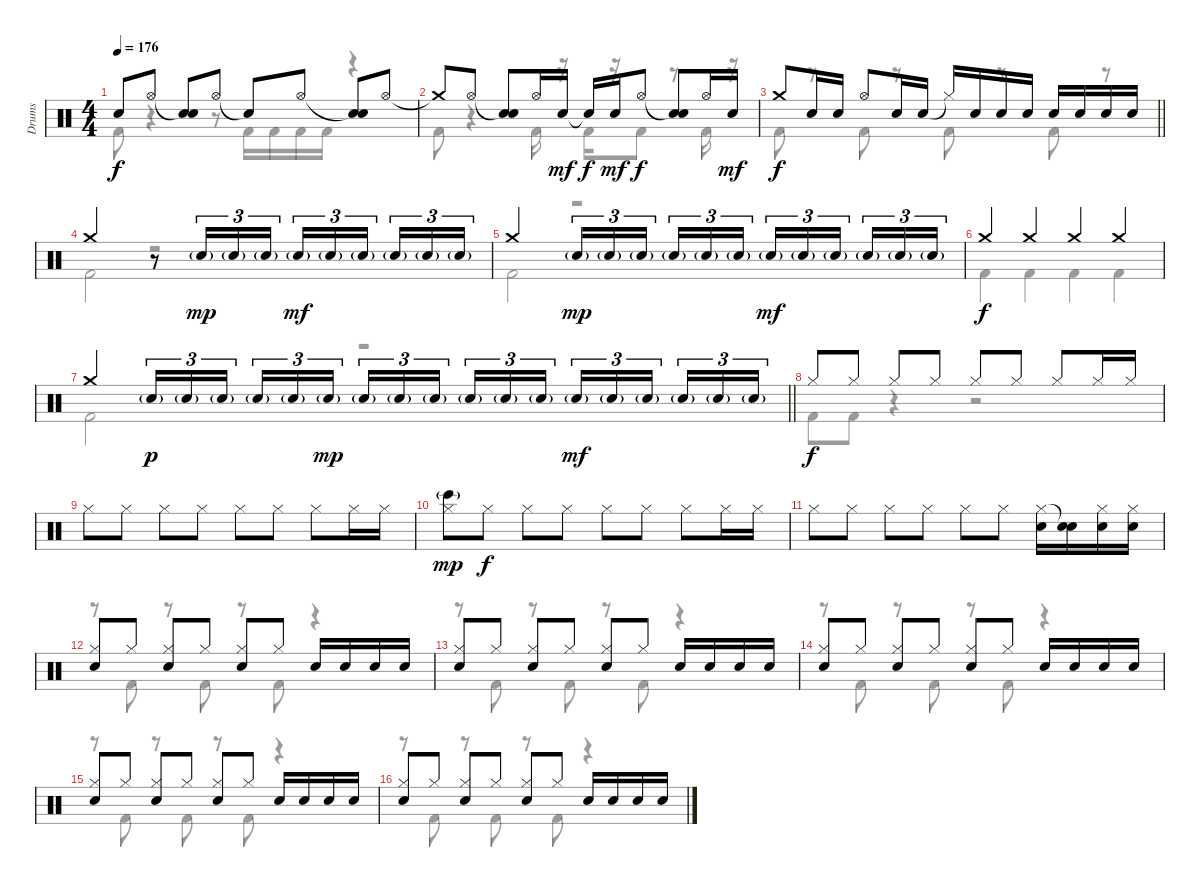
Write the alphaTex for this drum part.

\track ("Drums" "Drums") {instrument percussion}
\staff {score}
\articulation defaults
\voice
\ts (4 4)
\tempo 176
\clef neutral
\ks c "Snare (hit)"{t}.8{dy f} "Hi-Hat (open)".8
("Snare (hit)"{t} "Snare (hit) 2").8 "Hi-Hat (open)".8 "Snare (hit)"{t}.8 "Hi-Hat (open)".8 ("Snare (hit)"{t} "Snare (hit) 2").8 "Hi-Hat (open)".8 |
"Crash medium (hit)"{t}.8 "Hi-Hat (open)".8 ("Snare (hit)"{t} "Snare (hit) 2").8 "Hi-Hat (open)".16 "Snare (hit) 2".16{dy mf} "Snare (hit)"{t}.16{dy f} "Snare (hit) 2".16{dy mf} "Hi-Hat (open)".8{dy f} ("Snare (hit)"{t} "Snare (hit) 2").8 "Hi-Hat (open)".16 "Snare (hit) 2".16{dy mf} |
\barLineRight lightlight "Crash medium (hit)".8{dy f} "Snare (hit) 2".16 "Snare (hit) 2".16 "Hi-Hat (open)".8 "Snare (hit) 2".16 "Snare (hit) 2".16 "Hi-Hat (closed)"{t}.16 "Snare (hit) 2".16 "Snare (hit) 2".16 "Snare (hit) 2".16 "Snare (hit) 2".16 "Snare (hit) 2".16 "Snare (hit) 2".16 "Snare (hit) 2".16
|
"Crash medium (hit)".2 r.8 "Snare (hit) 2"{g}.16{tu (3 2) dy mp} "Snare (hit) 2"{g}.16{tu (3 2)} "Snare (hit) 2"{g}.16{tu (3 2)} "Snare (hit) 2"{g}.16{tu (3 2) dy mf} "Snare (hit) 2"{g}.16{tu (3 2)} "Snare (hit) 2"{g}.16{tu (3 2) beam splitsecondary} "Snare (hit) 2"{g}.16{tu (3 2)} "Snare (hit) 2"{g}.16{tu (3 2)} "Snare (hit) 2"{g}.16{tu (3 2)} |
"Crash medium (hit)".2 "Snare (hit) 2"{g}.16{tu (3 2) dy mp} "Snare (hit) 2"{g}.16{tu (3 2)} "Snare (hit) 2"{g}.16{tu (3 2) beam splitsecondary} "Snare (hit) 2"{g}.16{tu (3 2)} "Snare (hit) 2"{g}.16{tu (3 2)} "Snare (hit) 2"{g}.16{tu (3 2)} "Snare (hit) 2"{g}.16{tu (3 2) dy mf} "Snare (hit) 2"{g}.16{tu (3 2)} "Snare (hit) 2"{g}.16{tu (3 2) beam splitsecondary} "Snare (hit) 2"{g}.16{tu (3 2)} "Snare (hit) 2"{g}.16{tu (3 2)} "Snare (hit) 2"{g}.16{tu (3 2)} |
"Crash medium (hit)".4{dy f} "Crash medium (hit)".4 "Crash medium (hit)".4 "Crash medium (hit)".4 |
\barLineRight lightlight "Crash medium (hit)".4 "Snare (hit) 2"{g}.16{tu (3 2) dy p} "Snare (hit) 2"{g}.16{tu (3 2)} "Snare (hit) 2"{g}.16{tu (3 2) beam splitsecondary} "Snare (hit) 2"{g}.16{tu (3 2)} "Snare (hit) 2"{g}.16{tu (3 2)} "Snare (hit) 2"{g}.16{tu (3 2) dy mp} "Snare (hit) 2"{g}.16{tu (3 2)} "Snare (hit) 2"{g}.16{tu (3 2)} "Snare (hit) 2"{g}.16{tu (3 2) beam splitsecondary} "Snare (hit) 2"{g}.16{tu (3 2)} "Snare (hit) 2"{g}.16{tu (3 2)} "Snare (hit) 2"{g}.16{tu (3 2)} "Snare (hit) 2"{g}.16{tu (3 2) dy mf} "Snare (hit) 2"{g}.16{tu (3 2)} "Snare (hit) 2"{g}.16{tu (3 2) beam splitsecondary} "Snare (hit) 2"{g}.16{tu (3 2)} "Snare (hit) 2"{g}.16{tu (3 2)} "Snare (hit) 2"{g}.16{tu (3 2)}
|
"Hi-Hat (closed)".8{dy f} "Hi-Hat (closed)".8 "Hi-Hat (closed)".8 "Hi-Hat (closed)".8 "Hi-Hat (closed)".8 "Hi-Hat (closed)".8 "Hi-Hat (closed)".8 "Hi-Hat (closed)".16 "Hi-Hat (closed)".16 |
"Hi-Hat (closed)".8 "Hi-Hat (closed)".8 "Hi-Hat (closed)".8 "Hi-Hat (closed)".8 "Hi-Hat (closed)".8 "Hi-Hat (closed)".8 "Hi-Hat (closed)".8 "Hi-Hat (closed)".16 "Hi-Hat (closed)".16 |
("Hi-Hat (closed)" "Bongo High (hit)"{g}).8{dy mp} "Hi-Hat (closed)".8{dy f} "Hi-Hat (closed)".8 "Hi-Hat (closed)".8 "Hi-Hat (closed)".8 "Hi-Hat (closed)".8 "Hi-Hat (closed)".8 "Hi-Hat (closed)".16 "Hi-Hat (closed)".16 |
"Hi-Hat (closed)".8 "Hi-Hat (closed)".8 "Hi-Hat (closed)".8 "Hi-Hat (closed)".8 "Hi-Hat (closed)".8 "Hi-Hat (closed)".8 ("Hi-Hat (closed)" "Snare (hit) 2").16 ("Snare (hit)"{t} "Snare (hit) 2").16 ("Hi-Hat (closed)" "Snare (hit) 2").16 ("Hi-Hat (closed)" "Snare (hit) 2").16 |
("Hi-Hat (closed)" "Snare (hit) 2").8 "Hi-Hat (closed)".8 ("Hi-Hat (closed)" "Snare (hit) 2").8 "Hi-Hat (closed)".8 ("Hi-Hat (closed)" "Snare (hit) 2").8 "Hi-Hat (closed)".8 "Snare (hit) 2".16 "Snare (hit) 2".16 "Snare (hit) 2".16 "Snare (hit) 2".16 |
("Hi-Hat (closed)" "Snare (hit) 2").8 "Hi-Hat (closed)".8 ("Hi-Hat (closed)" "Snare (hit) 2").8 "Hi-Hat (closed)".8 ("Hi-Hat (closed)" "Snare (hit) 2").8 "Hi-Hat (closed)".8 "Snare (hit) 2".16 "Snare (hit) 2".16 "Snare (hit) 2".16 "Snare (hit) 2".16 |
("Hi-Hat (closed)" "Snare (hit) 2").8 "Hi-Hat (closed)".8 ("Hi-Hat (closed)" "Snare (hit) 2").8 "Hi-Hat (closed)".8 ("Hi-Hat (closed)" "Snare (hit) 2").8 "Hi-Hat (closed)".8 "Snare (hit) 2".16 "Snare (hit) 2".16 "Snare (hit) 2".16 "Snare (hit) 2".16 |
("Hi-Hat (closed)" "Snare (hit) 2").8 "Hi-Hat (closed)".8 ("Hi-Hat (closed)" "Snare (hit) 2").8 "Hi-Hat (closed)".8 ("Hi-Hat (closed)" "Snare (hit) 2").8 "Hi-Hat (closed)".8 "Snare (hit) 2".16 "Snare (hit) 2".16 "Snare (hit) 2".16 "Snare (hit) 2".16 |
("Hi-Hat (closed)" "Snare (hit) 2").8 "Hi-Hat (closed)".8 ("Hi-Hat (closed)" "Snare (hit) 2").8 "Hi-Hat (closed)".8 ("Hi-Hat (closed)" "Snare (hit) 2").8 "Hi-Hat (closed)".8 "Snare (hit) 2".16 "Snare (hit) 2".16 "Snare (hit) 2".16 "Snare (hit) 2".16
\voice
\clef neutral
\ottava regular
\simile none
\ks c "Kick (hit) 2".8{dy f}
r.4 r.8 "Kick (hit) 2".16 "Kick (hit) 2".16 "Kick (hit) 2".16 "Kick (hit) 2".16 r.4 |
"Kick (hit) 2".8 r.4 "Kick (hit) 2".16 r.16 "Kick (hit) 2".16 r.16 "Kick (hit) 2".8 r.8 "Kick (hit) 2".16 r.16 |
\barLineRight lightlight "Kick (hit) 2".8
r.8 "Kick (hit) 2".8 r.8 "Kick (hit) 2".8 r.8 "Kick (hit) 2".8 r.8 |
"Kick (hit) 2".2 r.2 |
"Kick (hit) 2".2 r.2 |
"Kick (hit) 2".4 "Kick (hit) 2".4 "Kick (hit) 2".4 "Kick (hit) 2".4 |
\barLineRight lightlight "Kick (hit) 2".2
r.2 |
"Kick (hit) 2".8 "Kick (hit) 2".8 r.4 r.2 |
|
|
|
r.8 "Kick (hit) 2".8 r.8 "Kick (hit) 2".8 r.8 "Kick (hit) 2".8 r.4 |
r.8 "Kick (hit) 2".8 r.8 "Kick (hit) 2".8 r.8 "Kick (hit) 2".8 r.4 |
r.8 "Kick (hit) 2".8 r.8 "Kick (hit) 2".8 r.8 "Kick (hit) 2".8 r.4 |
r.8 "Kick (hit) 2".8 r.8 "Kick (hit) 2".8 r.8 "Kick (hit) 2".8 r.4 |
r.8 "Kick (hit) 2".8 r.8 "Kick (hit) 2".8 r.8 "Kick (hit) 2".8 r.4
